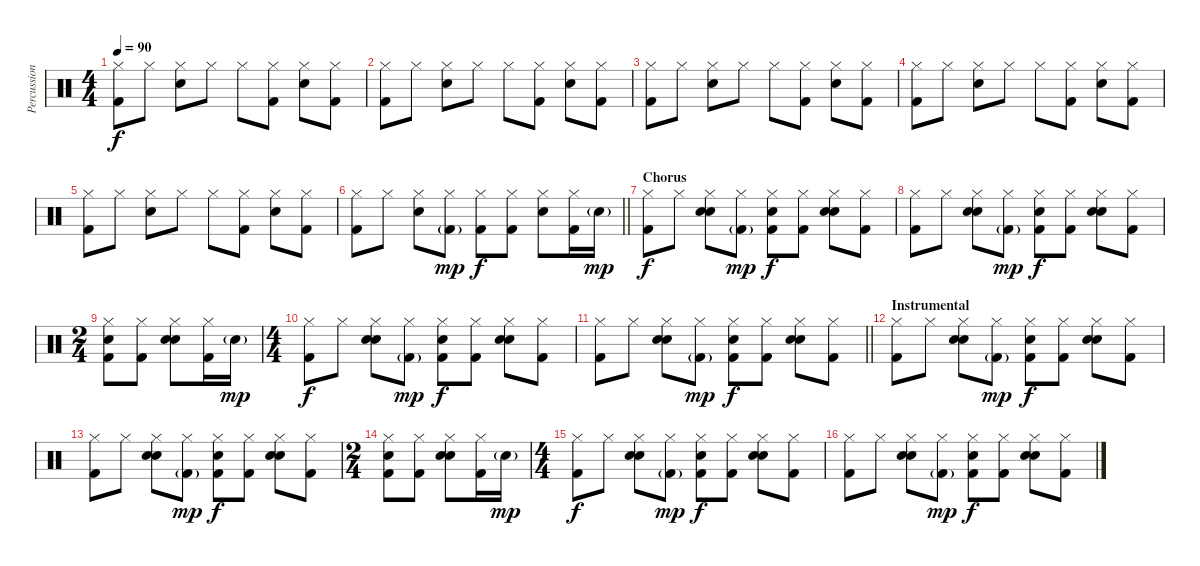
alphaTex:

\track ("Percussion" "Percussion") {instrument percussion}
\staff {score}
\articulation defaults
\ts (4 4)
\tempo 90
\clef neutral
\ks c
("Hi-Hat (closed)" "Kick (hit) 2").8{dy f} "Hi-Hat (closed)".8 ("Hi-Hat (closed)" "Snare (hit) 2").8 "Hi-Hat (closed)".8 "Hi-Hat (closed)".8 ("Hi-Hat (closed)" "Kick (hit) 2").8 ("Hi-Hat (closed)" "Snare (hit) 2").8 ("Hi-Hat (closed)" "Kick (hit) 2").8 |
("Hi-Hat (closed)" "Kick (hit) 2").8 "Hi-Hat (closed)".8 ("Hi-Hat (closed)" "Snare (hit) 2").8 "Hi-Hat (closed)".8 "Hi-Hat (closed)".8 ("Hi-Hat (closed)" "Kick (hit) 2").8 ("Hi-Hat (closed)" "Snare (hit) 2").8 ("Hi-Hat (closed)" "Kick (hit) 2").8 |
("Hi-Hat (closed)" "Kick (hit) 2").8 "Hi-Hat (closed)".8 ("Hi-Hat (closed)" "Snare (hit) 2").8 "Hi-Hat (closed)".8 "Hi-Hat (closed)".8 ("Hi-Hat (closed)" "Kick (hit) 2").8 ("Hi-Hat (closed)" "Snare (hit) 2").8 ("Hi-Hat (closed)" "Kick (hit) 2").8 |
("Hi-Hat (closed)" "Kick (hit) 2").8 "Hi-Hat (closed)".8 ("Hi-Hat (closed)" "Snare (hit) 2").8 "Hi-Hat (closed)".8 "Hi-Hat (closed)".8 ("Hi-Hat (closed)" "Kick (hit) 2").8 ("Hi-Hat (closed)" "Snare (hit) 2").8 ("Hi-Hat (closed)" "Kick (hit) 2").8 |
("Hi-Hat (closed)" "Kick (hit) 2").8 "Hi-Hat (closed)".8 ("Hi-Hat (closed)" "Snare (hit) 2").8 "Hi-Hat (closed)".8 "Hi-Hat (closed)".8 ("Hi-Hat (closed)" "Kick (hit) 2").8 ("Hi-Hat (closed)" "Snare (hit) 2").8 ("Hi-Hat (closed)" "Kick (hit) 2").8 |
\barLineRight lightlight
("Hi-Hat (closed)" "Kick (hit) 2").8 "Hi-Hat (closed)".8 ("Hi-Hat (closed)" "Snare (hit) 2").8 ("Hi-Hat (closed)" "Kick (hit) 2"{g}).8{dy mp} ("Hi-Hat (closed)" "Kick (hit) 2").8{dy f} ("Hi-Hat (closed)" "Kick (hit) 2").8 ("Hi-Hat (closed)" "Snare (hit) 2").8 ("Hi-Hat (closed)" "Kick (hit) 2").16 "Snare (hit) 2"{g}.16{dy mp} |
\section ("" "Chorus")
("Hi-Hat (closed)" "Kick (hit) 2").8{dy f} "Hi-Hat (closed)".8 ("Hi-Hat (closed)" "Hand Clap (hit)" "Snare (hit) 2").8 ("Hi-Hat (closed)" "Kick (hit) 2"{g}).8{dy mp} ("Hi-Hat (closed)" "Hand Clap (hit)" "Kick (hit) 2").8{dy f} ("Hi-Hat (closed)" "Kick (hit) 2").8 ("Hi-Hat (closed)" "Hand Clap (hit)" "Snare (hit) 2").8 ("Hi-Hat (closed)" "Kick (hit) 2").8 |
("Hi-Hat (closed)" "Kick (hit) 2").8 "Hi-Hat (closed)".8 ("Hi-Hat (closed)" "Hand Clap (hit)" "Snare (hit) 2").8 ("Hi-Hat (closed)" "Kick (hit) 2"{g}).8{dy mp} ("Hi-Hat (closed)" "Hand Clap (hit)" "Kick (hit) 2").8{dy f} ("Hi-Hat (closed)" "Kick (hit) 2").8 ("Hi-Hat (closed)" "Hand Clap (hit)" "Snare (hit) 2").8 ("Hi-Hat (closed)" "Kick (hit) 2").8 |
\ts (2 4)
("Hi-Hat (closed)" "Hand Clap (hit)" "Kick (hit) 2").8 ("Hi-Hat (closed)" "Kick (hit) 2").8 ("Hi-Hat (closed)" "Hand Clap (hit)" "Snare (hit) 2").8 ("Hi-Hat (closed)" "Kick (hit) 2").16 "Snare (hit) 2"{g}.16{dy mp} |
\ts (4 4)
("Hi-Hat (closed)" "Kick (hit) 2").8{dy f} "Hi-Hat (closed)".8 ("Hi-Hat (closed)" "Hand Clap (hit)" "Snare (hit) 2").8 ("Hi-Hat (closed)" "Kick (hit) 2"{g}).8{dy mp} ("Hi-Hat (closed)" "Hand Clap (hit)" "Kick (hit) 2").8{dy f} ("Hi-Hat (closed)" "Kick (hit) 2").8 ("Hi-Hat (closed)" "Hand Clap (hit)" "Snare (hit) 2").8 ("Hi-Hat (closed)" "Kick (hit) 2").8 |
\barLineRight lightlight
("Hi-Hat (closed)" "Kick (hit) 2").8 "Hi-Hat (closed)".8 ("Hi-Hat (closed)" "Hand Clap (hit)" "Snare (hit) 2").8 ("Hi-Hat (closed)" "Kick (hit) 2"{g}).8{dy mp} ("Hi-Hat (closed)" "Hand Clap (hit)" "Kick (hit) 2").8{dy f} ("Hi-Hat (closed)" "Kick (hit) 2").8 ("Hi-Hat (closed)" "Hand Clap (hit)" "Snare (hit) 2").8 ("Hi-Hat (closed)" "Kick (hit) 2").8 |
\section ("" "Instrumental")
("Hi-Hat (closed)" "Kick (hit) 2").8 "Hi-Hat (closed)".8 ("Hi-Hat (closed)" "Hand Clap (hit)" "Snare (hit) 2").8 ("Hi-Hat (closed)" "Kick (hit) 2"{g}).8{dy mp} ("Hi-Hat (closed)" "Hand Clap (hit)" "Kick (hit) 2").8{dy f} ("Hi-Hat (closed)" "Kick (hit) 2").8 ("Hi-Hat (closed)" "Hand Clap (hit)" "Snare (hit) 2").8 ("Hi-Hat (closed)" "Kick (hit) 2").8 |
("Hi-Hat (closed)" "Kick (hit) 2").8 "Hi-Hat (closed)".8 ("Hi-Hat (closed)" "Hand Clap (hit)" "Snare (hit) 2").8 ("Hi-Hat (closed)" "Kick (hit) 2"{g}).8{dy mp} ("Hi-Hat (closed)" "Hand Clap (hit)" "Kick (hit) 2").8{dy f} ("Hi-Hat (closed)" "Kick (hit) 2").8 ("Hi-Hat (closed)" "Hand Clap (hit)" "Snare (hit) 2").8 ("Hi-Hat (closed)" "Kick (hit) 2").8 |
\ts (2 4)
("Hi-Hat (closed)" "Hand Clap (hit)" "Kick (hit) 2").8 ("Hi-Hat (closed)" "Kick (hit) 2").8 ("Hi-Hat (closed)" "Hand Clap (hit)" "Snare (hit) 2").8 ("Hi-Hat (closed)" "Kick (hit) 2").16 "Snare (hit) 2"{g}.16{dy mp} |
\ts (4 4)
("Hi-Hat (closed)" "Kick (hit) 2").8{dy f} "Hi-Hat (closed)".8 ("Hi-Hat (closed)" "Hand Clap (hit)" "Snare (hit) 2").8 ("Hi-Hat (closed)" "Kick (hit) 2"{g}).8{dy mp} ("Hi-Hat (closed)" "Hand Clap (hit)" "Kick (hit) 2").8{dy f} ("Hi-Hat (closed)" "Kick (hit) 2").8 ("Hi-Hat (closed)" "Hand Clap (hit)" "Snare (hit) 2").8 ("Hi-Hat (closed)" "Kick (hit) 2").8 |
("Hi-Hat (closed)" "Kick (hit) 2").8 "Hi-Hat (closed)".8 ("Hi-Hat (closed)" "Hand Clap (hit)" "Snare (hit) 2").8 ("Hi-Hat (closed)" "Kick (hit) 2"{g}).8{dy mp} ("Hi-Hat (closed)" "Hand Clap (hit)" "Kick (hit) 2").8{dy f} ("Hi-Hat (closed)" "Kick (hit) 2").8 ("Hi-Hat (closed)" "Hand Clap (hit)" "Snare (hit) 2").8 ("Hi-Hat (closed)" "Kick (hit) 2").8
